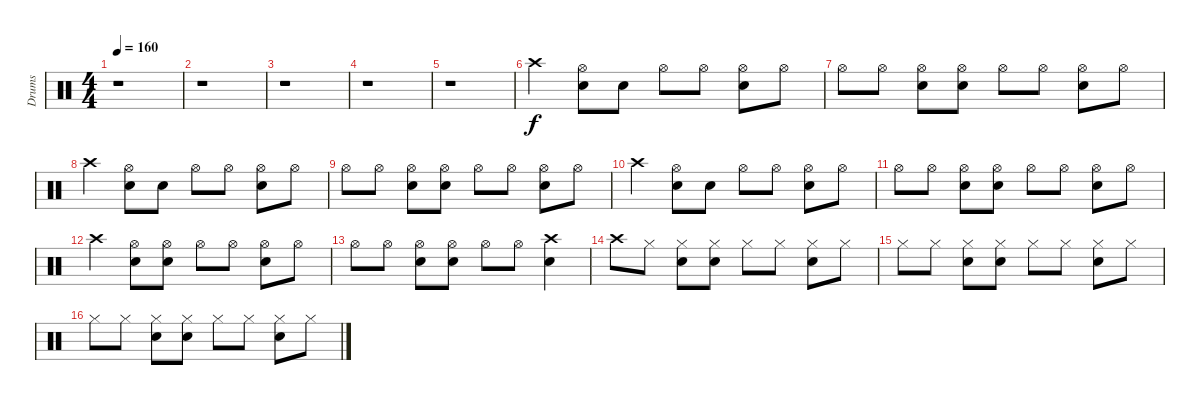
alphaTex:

\track ("Drums" "Drums") {instrument percussion}
\staff {score}
\articulation defaults
\ts (4 4)
\tempo 160
\clef neutral
\ks c
r.1{dy f} |
r.1 |
r.1 |
r.1 |
r.1 |
"Crash high (hit)".4 ("Hi-Hat (open)" "Snare (hit) 2").8 "Snare (hit) 2".8 "Hi-Hat (open)".8 "Hi-Hat (open)".8 ("Hi-Hat (open)" "Snare (hit) 2").8 "Hi-Hat (open)".8 |
"Hi-Hat (open)".8 "Hi-Hat (open)".8 ("Hi-Hat (open)" "Snare (hit) 2").8 ("Hi-Hat (open)" "Snare (hit) 2").8 "Hi-Hat (open)".8 "Hi-Hat (open)".8 ("Hi-Hat (open)" "Snare (hit) 2").8 "Hi-Hat (open)".8 |
"Crash high (hit)".4 ("Hi-Hat (open)" "Snare (hit) 2").8 "Snare (hit) 2".8 "Hi-Hat (open)".8 "Hi-Hat (open)".8 ("Hi-Hat (open)" "Snare (hit) 2").8 "Hi-Hat (open)".8 |
"Hi-Hat (open)".8 "Hi-Hat (open)".8 ("Hi-Hat (open)" "Snare (hit) 2").8 ("Hi-Hat (open)" "Snare (hit) 2").8 "Hi-Hat (open)".8 "Hi-Hat (open)".8 ("Hi-Hat (open)" "Snare (hit) 2").8 "Hi-Hat (open)".8 |
"Crash high (hit)".4 ("Hi-Hat (open)" "Snare (hit) 2").8 "Snare (hit) 2".8 "Hi-Hat (open)".8 "Hi-Hat (open)".8 ("Hi-Hat (open)" "Snare (hit) 2").8 "Hi-Hat (open)".8 |
"Hi-Hat (open)".8 "Hi-Hat (open)".8 ("Hi-Hat (open)" "Snare (hit) 2").8 ("Hi-Hat (open)" "Snare (hit) 2").8 "Hi-Hat (open)".8 "Hi-Hat (open)".8 ("Hi-Hat (open)" "Snare (hit) 2").8 "Hi-Hat (open)".8 |
"Crash high (hit)".4 ("Hi-Hat (open)" "Snare (hit) 2").8 ("Hi-Hat (open)" "Snare (hit) 2").8 "Hi-Hat (open)".8 "Hi-Hat (open)".8 ("Hi-Hat (open)" "Snare (hit) 2").8 "Hi-Hat (open)".8 |
"Hi-Hat (open)".8 "Hi-Hat (open)".8 ("Hi-Hat (open)" "Snare (hit) 2").8 ("Hi-Hat (open)" "Snare (hit) 2").8 "Hi-Hat (open)".8 "Hi-Hat (open)".8 ("Crash high (hit)" "Snare (hit) 2").4 |
"Crash high (hit)".8 "Hi-Hat (closed)".8 ("Hi-Hat (closed)" "Snare (hit) 2").8 ("Hi-Hat (closed)" "Snare (hit) 2").8 "Hi-Hat (closed)".8 "Hi-Hat (closed)".8 ("Hi-Hat (closed)" "Snare (hit) 2").8 "Hi-Hat (closed)".8 |
"Hi-Hat (closed)".8 "Hi-Hat (closed)".8 ("Hi-Hat (closed)" "Snare (hit) 2").8 ("Hi-Hat (closed)" "Snare (hit) 2").8 "Hi-Hat (closed)".8 "Hi-Hat (closed)".8 ("Hi-Hat (closed)" "Snare (hit) 2").8 "Hi-Hat (closed)".8 |
"Hi-Hat (closed)".8 "Hi-Hat (closed)".8 ("Hi-Hat (closed)" "Snare (hit) 2").8 ("Hi-Hat (closed)" "Snare (hit) 2").8 "Hi-Hat (closed)".8 "Hi-Hat (closed)".8 ("Hi-Hat (closed)" "Snare (hit) 2").8 "Hi-Hat (closed)".8
